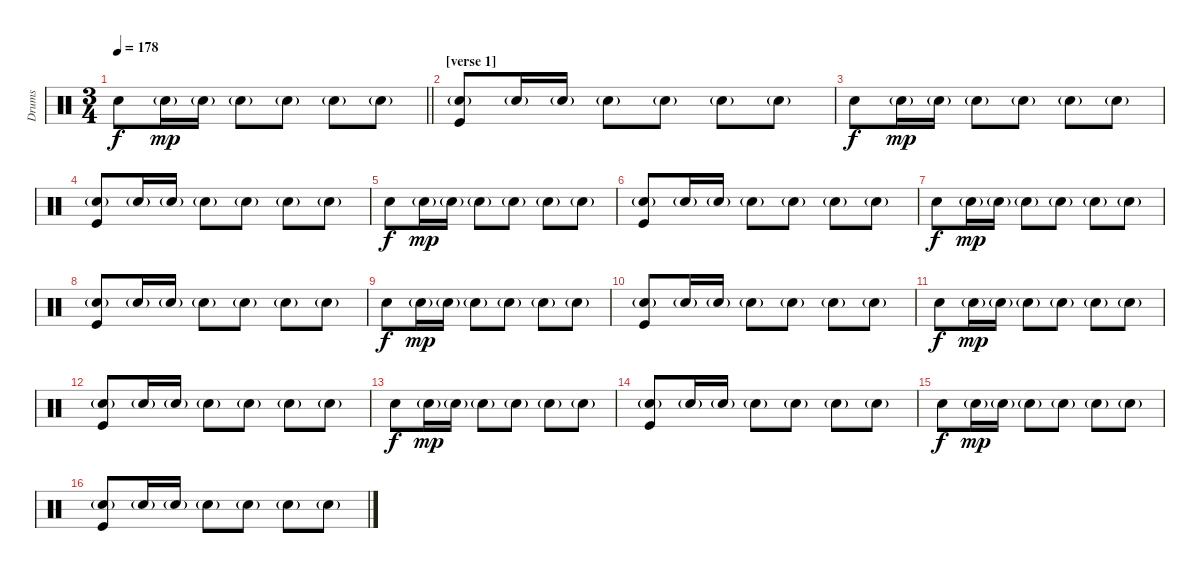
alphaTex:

\track ("Drums" "Drums") {instrument percussion}
\staff {score}
\articulation defaults
\ts (3 4)
\tempo 178
\clef neutral
\barLineRight lightlight
\ks c "Snare (hit) 2".8{dy f} "Snare (hit) 2"{g}.16{dy mp} "Snare (hit) 2"{g}.16 "Snare (hit) 2"{g}.8 "Snare (hit) 2"{g}.8 "Snare (hit) 2"{g}.8 "Snare (hit) 2"{g}.8
|
\section ("" "[verse 1]")
("Snare (hit) 2"{g} "Kick (hit)").8 "Snare (hit) 2"{g}.16 "Snare (hit) 2"{g}.16 "Snare (hit) 2"{g}.8 "Snare (hit) 2"{g}.8 "Snare (hit) 2"{g}.8 "Snare (hit) 2"{g}.8 |
"Snare (hit) 2".8{dy f} "Snare (hit) 2"{g}.16{dy mp} "Snare (hit) 2"{g}.16 "Snare (hit) 2"{g}.8 "Snare (hit) 2"{g}.8 "Snare (hit) 2"{g}.8 "Snare (hit) 2"{g}.8 |
("Snare (hit) 2"{g} "Kick (hit)").8 "Snare (hit) 2"{g}.16 "Snare (hit) 2"{g}.16 "Snare (hit) 2"{g}.8 "Snare (hit) 2"{g}.8 "Snare (hit) 2"{g}.8 "Snare (hit) 2"{g}.8 |
"Snare (hit) 2".8{dy f} "Snare (hit) 2"{g}.16{dy mp} "Snare (hit) 2"{g}.16 "Snare (hit) 2"{g}.8 "Snare (hit) 2"{g}.8 "Snare (hit) 2"{g}.8 "Snare (hit) 2"{g}.8 |
("Snare (hit) 2"{g} "Kick (hit)").8 "Snare (hit) 2"{g}.16 "Snare (hit) 2"{g}.16 "Snare (hit) 2"{g}.8 "Snare (hit) 2"{g}.8 "Snare (hit) 2"{g}.8 "Snare (hit) 2"{g}.8 |
"Snare (hit) 2".8{dy f} "Snare (hit) 2"{g}.16{dy mp} "Snare (hit) 2"{g}.16 "Snare (hit) 2"{g}.8 "Snare (hit) 2"{g}.8 "Snare (hit) 2"{g}.8 "Snare (hit) 2"{g}.8 |
("Snare (hit) 2"{g} "Kick (hit)").8 "Snare (hit) 2"{g}.16 "Snare (hit) 2"{g}.16 "Snare (hit) 2"{g}.8 "Snare (hit) 2"{g}.8 "Snare (hit) 2"{g}.8 "Snare (hit) 2"{g}.8 |
"Snare (hit) 2".8{dy f} "Snare (hit) 2"{g}.16{dy mp} "Snare (hit) 2"{g}.16 "Snare (hit) 2"{g}.8 "Snare (hit) 2"{g}.8 "Snare (hit) 2"{g}.8 "Snare (hit) 2"{g}.8 |
("Snare (hit) 2"{g} "Kick (hit)").8 "Snare (hit) 2"{g}.16 "Snare (hit) 2"{g}.16 "Snare (hit) 2"{g}.8 "Snare (hit) 2"{g}.8 "Snare (hit) 2"{g}.8 "Snare (hit) 2"{g}.8 |
"Snare (hit) 2".8{dy f} "Snare (hit) 2"{g}.16{dy mp} "Snare (hit) 2"{g}.16 "Snare (hit) 2"{g}.8 "Snare (hit) 2"{g}.8 "Snare (hit) 2"{g}.8 "Snare (hit) 2"{g}.8 |
("Snare (hit) 2"{g} "Kick (hit)").8 "Snare (hit) 2"{g}.16 "Snare (hit) 2"{g}.16 "Snare (hit) 2"{g}.8 "Snare (hit) 2"{g}.8 "Snare (hit) 2"{g}.8 "Snare (hit) 2"{g}.8 |
"Snare (hit) 2".8{dy f} "Snare (hit) 2"{g}.16{dy mp} "Snare (hit) 2"{g}.16 "Snare (hit) 2"{g}.8 "Snare (hit) 2"{g}.8 "Snare (hit) 2"{g}.8 "Snare (hit) 2"{g}.8 |
("Snare (hit) 2"{g} "Kick (hit)").8 "Snare (hit) 2"{g}.16 "Snare (hit) 2"{g}.16 "Snare (hit) 2"{g}.8 "Snare (hit) 2"{g}.8 "Snare (hit) 2"{g}.8 "Snare (hit) 2"{g}.8 |
"Snare (hit) 2".8{dy f} "Snare (hit) 2"{g}.16{dy mp} "Snare (hit) 2"{g}.16 "Snare (hit) 2"{g}.8 "Snare (hit) 2"{g}.8 "Snare (hit) 2"{g}.8 "Snare (hit) 2"{g}.8 |
("Snare (hit) 2"{g} "Kick (hit)").8 "Snare (hit) 2"{g}.16 "Snare (hit) 2"{g}.16 "Snare (hit) 2"{g}.8 "Snare (hit) 2"{g}.8 "Snare (hit) 2"{g}.8 "Snare (hit) 2"{g}.8
